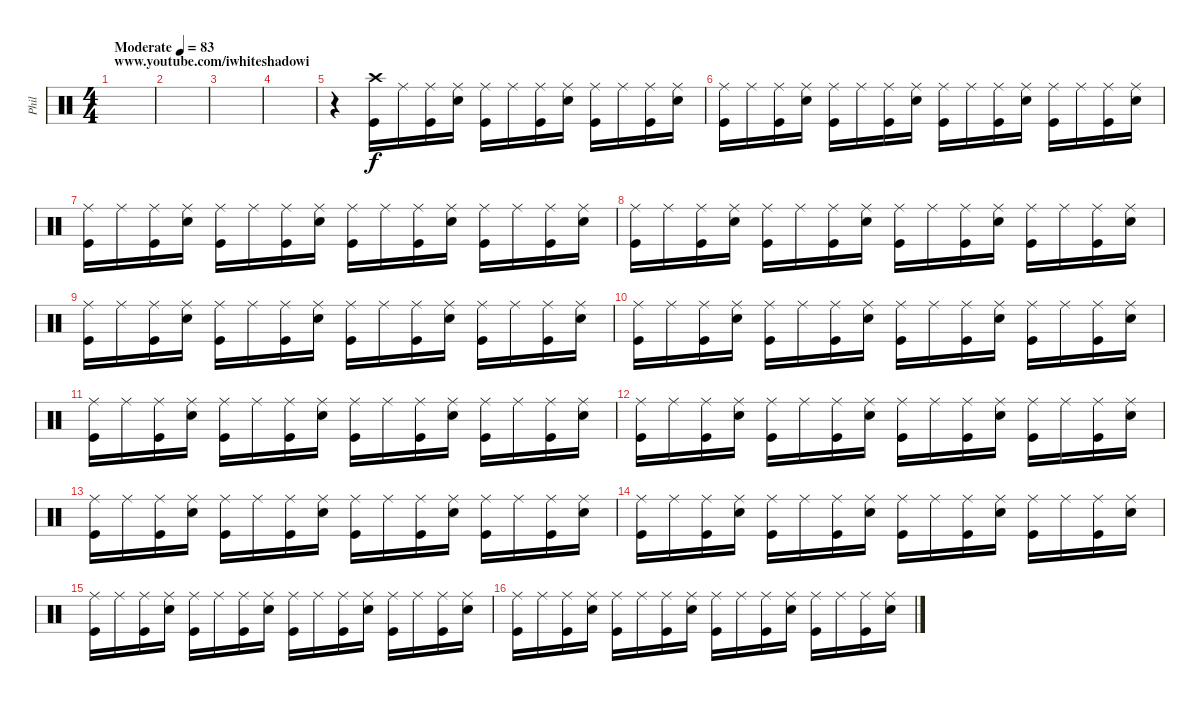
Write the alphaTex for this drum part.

\track ("Phil" "Phil") {instrument percussion}
\staff {score}
\articulation defaults
\ts (4 4)
\section ("" "www.youtube.com/iwhiteshadowi")
\tempo (83 "Moderate")
\clef neutral
\ks c
|
|
|
|
r.4 ("Crash high (hit)" "Kick (hit)").16 "Ride (middle)".16 ("Ride (middle)" "Kick (hit)").16 ("Ride (middle)" "Snare (hit) 2").16 ("Ride (middle)" "Kick (hit)").16 "Ride (middle)".16 ("Ride (middle)" "Kick (hit)").16 ("Ride (middle)" "Snare (hit) 2").16 ("Ride (middle)" "Kick (hit)").16 "Ride (middle)".16 ("Ride (middle)" "Kick (hit)").16 ("Ride (middle)" "Snare (hit) 2").16 |
("Ride (middle)" "Kick (hit)").16 "Ride (middle)".16 ("Ride (middle)" "Kick (hit)").16 ("Ride (middle)" "Snare (hit) 2").16 ("Ride (middle)" "Kick (hit)").16 "Ride (middle)".16 ("Ride (middle)" "Kick (hit)").16 ("Ride (middle)" "Snare (hit) 2").16 ("Ride (middle)" "Kick (hit)").16 "Ride (middle)".16 ("Ride (middle)" "Kick (hit)").16 ("Ride (middle)" "Snare (hit) 2").16 ("Ride (middle)" "Kick (hit)").16 "Ride (middle)".16 ("Ride (middle)" "Kick (hit)").16 ("Ride (middle)" "Snare (hit) 2").16 |
("Ride (middle)" "Kick (hit)").16 "Ride (middle)".16 ("Ride (middle)" "Kick (hit)").16 ("Ride (middle)" "Snare (hit) 2").16 ("Ride (middle)" "Kick (hit)").16 "Ride (middle)".16 ("Ride (middle)" "Kick (hit)").16 ("Ride (middle)" "Snare (hit) 2").16 ("Ride (middle)" "Kick (hit)").16 "Ride (middle)".16 ("Ride (middle)" "Kick (hit)").16 ("Ride (middle)" "Snare (hit) 2").16 ("Ride (middle)" "Kick (hit)").16 "Ride (middle)".16 ("Ride (middle)" "Kick (hit)").16 ("Ride (middle)" "Snare (hit) 2").16 |
("Ride (middle)" "Kick (hit)").16 "Ride (middle)".16 ("Ride (middle)" "Kick (hit)").16 ("Ride (middle)" "Snare (hit) 2").16 ("Ride (middle)" "Kick (hit)").16 "Ride (middle)".16 ("Ride (middle)" "Kick (hit)").16 ("Ride (middle)" "Snare (hit) 2").16 ("Ride (middle)" "Kick (hit)").16 "Ride (middle)".16 ("Ride (middle)" "Kick (hit)").16 ("Ride (middle)" "Snare (hit) 2").16 ("Ride (middle)" "Kick (hit)").16 "Ride (middle)".16 ("Ride (middle)" "Kick (hit)").16 ("Ride (middle)" "Snare (hit) 2").16 |
("Ride (middle)" "Kick (hit)").16 "Ride (middle)".16 ("Ride (middle)" "Kick (hit)").16 ("Ride (middle)" "Snare (hit) 2").16 ("Ride (middle)" "Kick (hit)").16 "Ride (middle)".16 ("Ride (middle)" "Kick (hit)").16 ("Ride (middle)" "Snare (hit) 2").16 ("Ride (middle)" "Kick (hit)").16 "Ride (middle)".16 ("Ride (middle)" "Kick (hit)").16 ("Ride (middle)" "Snare (hit) 2").16 ("Ride (middle)" "Kick (hit)").16 "Ride (middle)".16 ("Ride (middle)" "Kick (hit)").16 ("Ride (middle)" "Snare (hit) 2").16 |
("Ride (middle)" "Kick (hit)").16 "Ride (middle)".16 ("Ride (middle)" "Kick (hit)").16 ("Ride (middle)" "Snare (hit) 2").16 ("Ride (middle)" "Kick (hit)").16 "Ride (middle)".16 ("Ride (middle)" "Kick (hit)").16 ("Ride (middle)" "Snare (hit) 2").16 ("Ride (middle)" "Kick (hit)").16 "Ride (middle)".16 ("Ride (middle)" "Kick (hit)").16 ("Ride (middle)" "Snare (hit) 2").16 ("Ride (middle)" "Kick (hit)").16 "Ride (middle)".16 ("Ride (middle)" "Kick (hit)").16 ("Ride (middle)" "Snare (hit) 2").16 |
("Ride (middle)" "Kick (hit)").16 "Ride (middle)".16 ("Ride (middle)" "Kick (hit)").16 ("Ride (middle)" "Snare (hit) 2").16 ("Ride (middle)" "Kick (hit)").16 "Ride (middle)".16 ("Ride (middle)" "Kick (hit)").16 ("Ride (middle)" "Snare (hit) 2").16 ("Ride (middle)" "Kick (hit)").16 "Ride (middle)".16 ("Ride (middle)" "Kick (hit)").16 ("Ride (middle)" "Snare (hit) 2").16 ("Ride (middle)" "Kick (hit)").16 "Ride (middle)".16 ("Ride (middle)" "Kick (hit)").16 ("Ride (middle)" "Snare (hit) 2").16 |
("Ride (middle)" "Kick (hit)").16 "Ride (middle)".16 ("Ride (middle)" "Kick (hit)").16 ("Ride (middle)" "Snare (hit) 2").16 ("Ride (middle)" "Kick (hit)").16 "Ride (middle)".16 ("Ride (middle)" "Kick (hit)").16 ("Ride (middle)" "Snare (hit) 2").16 ("Ride (middle)" "Kick (hit)").16 "Ride (middle)".16 ("Ride (middle)" "Kick (hit)").16 ("Ride (middle)" "Snare (hit) 2").16 ("Ride (middle)" "Kick (hit)").16 "Ride (middle)".16 ("Ride (middle)" "Kick (hit)").16 ("Ride (middle)" "Snare (hit) 2").16 |
("Ride (middle)" "Kick (hit)").16 "Ride (middle)".16 ("Ride (middle)" "Kick (hit)").16 ("Ride (middle)" "Snare (hit) 2").16 ("Ride (middle)" "Kick (hit)").16 "Ride (middle)".16 ("Ride (middle)" "Kick (hit)").16 ("Ride (middle)" "Snare (hit) 2").16 ("Ride (middle)" "Kick (hit)").16 "Ride (middle)".16 ("Ride (middle)" "Kick (hit)").16 ("Ride (middle)" "Snare (hit) 2").16 ("Ride (middle)" "Kick (hit)").16 "Ride (middle)".16 ("Ride (middle)" "Kick (hit)").16 ("Ride (middle)" "Snare (hit) 2").16 |
("Ride (middle)" "Kick (hit)").16 "Ride (middle)".16 ("Ride (middle)" "Kick (hit)").16 ("Ride (middle)" "Snare (hit) 2").16 ("Ride (middle)" "Kick (hit)").16 "Ride (middle)".16 ("Ride (middle)" "Kick (hit)").16 ("Ride (middle)" "Snare (hit) 2").16 ("Ride (middle)" "Kick (hit)").16 "Ride (middle)".16 ("Ride (middle)" "Kick (hit)").16 ("Ride (middle)" "Snare (hit) 2").16 ("Ride (middle)" "Kick (hit)").16 "Ride (middle)".16 ("Ride (middle)" "Kick (hit)").16 ("Ride (middle)" "Snare (hit) 2").16 |
("Ride (middle)" "Kick (hit)").16 "Ride (middle)".16 ("Ride (middle)" "Kick (hit)").16 ("Ride (middle)" "Snare (hit) 2").16 ("Ride (middle)" "Kick (hit)").16 "Ride (middle)".16 ("Ride (middle)" "Kick (hit)").16 ("Ride (middle)" "Snare (hit) 2").16 ("Ride (middle)" "Kick (hit)").16 "Ride (middle)".16 ("Ride (middle)" "Kick (hit)").16 ("Ride (middle)" "Snare (hit) 2").16 ("Ride (middle)" "Kick (hit)").16 "Ride (middle)".16 ("Ride (middle)" "Kick (hit)").16 ("Ride (middle)" "Snare (hit) 2").16 |
("Ride (middle)" "Kick (hit)").16 "Ride (middle)".16 ("Ride (middle)" "Kick (hit)").16 ("Ride (middle)" "Snare (hit) 2").16 ("Ride (middle)" "Kick (hit)").16 "Ride (middle)".16 ("Ride (middle)" "Kick (hit)").16 ("Ride (middle)" "Snare (hit) 2").16 ("Ride (middle)" "Kick (hit)").16 "Ride (middle)".16 ("Ride (middle)" "Kick (hit)").16 ("Ride (middle)" "Snare (hit) 2").16 ("Ride (middle)" "Kick (hit)").16 "Ride (middle)".16 ("Ride (middle)" "Kick (hit)").16 ("Ride (middle)" "Snare (hit) 2").16
